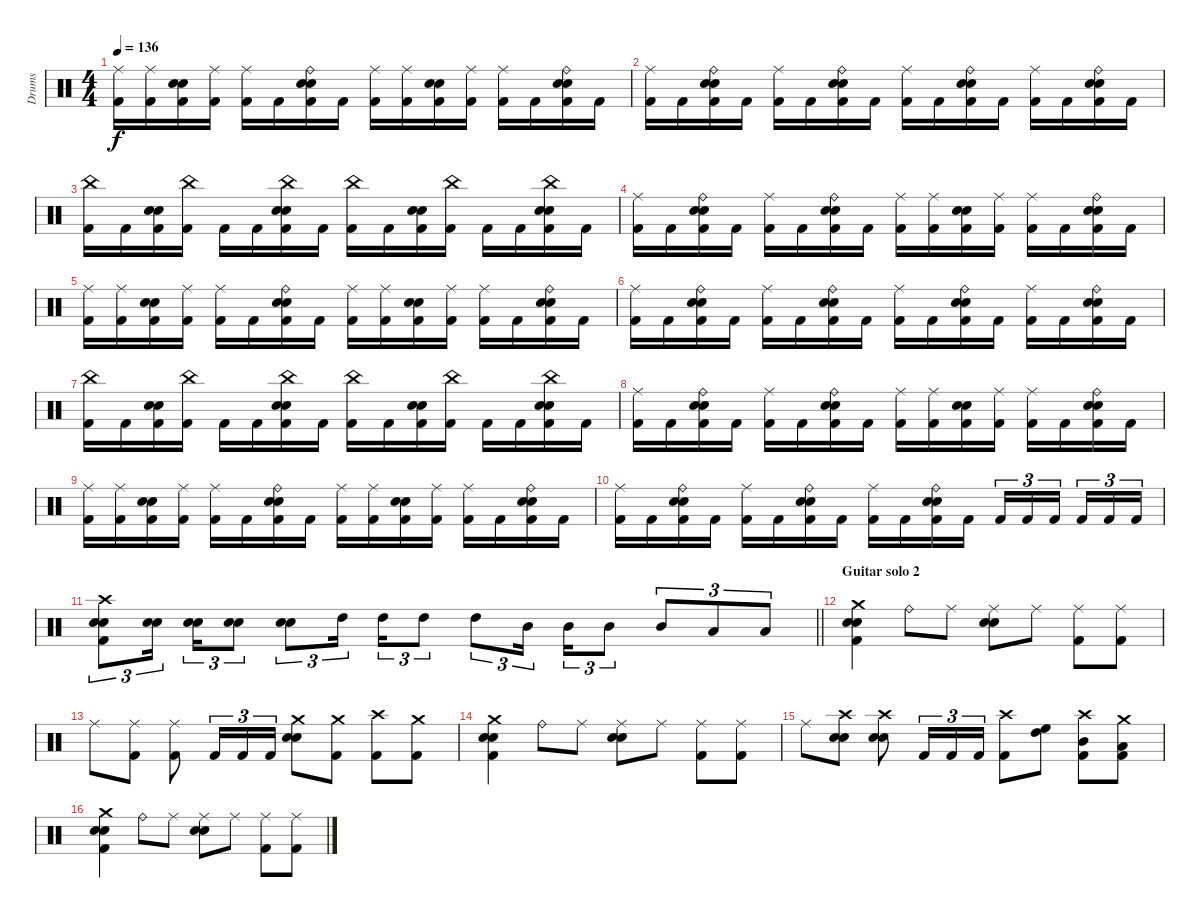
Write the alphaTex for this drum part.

\track ("Drums" "Drums") {instrument percussion}
\staff {score}
\articulation defaults
\ts (4 4)
\tempo 136
\clef neutral
\ks c
("Ride (middle)" "Kick (hit) 2").16{dy f} ("Ride (middle)" "Kick (hit) 2").16 ("Electric Snare (hit)" "Snare (hit) 2" "Kick (hit) 2").16 ("Ride (middle)" "Kick (hit) 2").16 ("Ride (middle)" "Kick (hit) 2").16 "Kick (hit) 2".16 ("Ride (bell)" "Electric Snare (hit)" "Snare (hit) 2" "Kick (hit) 2").16 "Kick (hit) 2".16 ("Ride (middle)" "Kick (hit) 2").16 ("Ride (middle)" "Kick (hit) 2").16 ("Electric Snare (hit)" "Snare (hit) 2" "Kick (hit) 2").16 ("Ride (middle)" "Kick (hit) 2").16 ("Ride (middle)" "Kick (hit) 2").16 "Kick (hit) 2".16 ("Ride (bell)" "Electric Snare (hit)" "Snare (hit) 2" "Kick (hit) 2").16 "Kick (hit) 2".16 |
("Ride (middle)" "Kick (hit) 2").16 "Kick (hit) 2".16 ("Ride (bell)" "Electric Snare (hit)" "Snare (hit) 2" "Kick (hit) 2").16 "Kick (hit) 2".16 ("Ride (middle)" "Kick (hit) 2").16 "Kick (hit) 2".16 ("Ride (bell)" "Electric Snare (hit)" "Snare (hit) 2" "Kick (hit) 2").16 "Kick (hit) 2".16 ("Ride (middle)" "Kick (hit) 2").16 "Kick (hit) 2".16 ("Ride (bell)" "Electric Snare (hit)" "Snare (hit) 2" "Kick (hit) 2").16 "Kick (hit) 2".16 ("Ride (middle)" "Kick (hit) 2").16 "Kick (hit) 2".16 ("Ride (bell)" "Electric Snare (hit)" "Snare (hit) 2" "Kick (hit) 2").16 "Kick (hit) 2".16 |
("China (hit)" "Kick (hit) 2").16 "Kick (hit) 2".16 ("Electric Snare (hit)" "Snare (hit) 2" "Kick (hit) 2").16 ("China (hit)" "Kick (hit) 2").16 "Kick (hit) 2".16 "Kick (hit) 2".16 ("China (hit)" "Electric Snare (hit)" "Snare (hit) 2" "Kick (hit) 2").16 "Kick (hit) 2".16 ("China (hit)" "Kick (hit) 2").16 "Kick (hit) 2".16 ("Electric Snare (hit)" "Snare (hit) 2" "Kick (hit) 2").16 ("China (hit)" "Kick (hit) 2").16 "Kick (hit) 2".16 "Kick (hit) 2".16 ("China (hit)" "Electric Snare (hit)" "Snare (hit) 2" "Kick (hit) 2").16 "Kick (hit) 2".16 |
("Ride (middle)" "Kick (hit) 2").16 "Kick (hit) 2".16 ("Ride (bell)" "Electric Snare (hit)" "Snare (hit) 2" "Kick (hit) 2").16 "Kick (hit) 2".16 ("Ride (middle)" "Kick (hit) 2").16 "Kick (hit) 2".16 ("Ride (bell)" "Electric Snare (hit)" "Snare (hit) 2" "Kick (hit) 2").16 "Kick (hit) 2".16 ("Ride (middle)" "Kick (hit) 2").16 ("Ride (middle)" "Kick (hit) 2").16 ("Electric Snare (hit)" "Snare (hit) 2" "Kick (hit) 2").16 ("Ride (middle)" "Kick (hit) 2").16 ("Ride (middle)" "Kick (hit) 2").16 "Kick (hit) 2".16 ("Ride (bell)" "Electric Snare (hit)" "Snare (hit) 2" "Kick (hit) 2").16 "Kick (hit) 2".16 |
("Ride (middle)" "Kick (hit) 2").16 ("Ride (middle)" "Kick (hit) 2").16 ("Electric Snare (hit)" "Snare (hit) 2" "Kick (hit) 2").16 ("Ride (middle)" "Kick (hit) 2").16 ("Ride (middle)" "Kick (hit) 2").16 "Kick (hit) 2".16 ("Ride (bell)" "Electric Snare (hit)" "Snare (hit) 2" "Kick (hit) 2").16 "Kick (hit) 2".16 ("Ride (middle)" "Kick (hit) 2").16 ("Ride (middle)" "Kick (hit) 2").16 ("Electric Snare (hit)" "Snare (hit) 2" "Kick (hit) 2").16 ("Ride (middle)" "Kick (hit) 2").16 ("Ride (middle)" "Kick (hit) 2").16 "Kick (hit) 2".16 ("Ride (bell)" "Electric Snare (hit)" "Snare (hit) 2" "Kick (hit) 2").16 "Kick (hit) 2".16 |
("Ride (middle)" "Kick (hit) 2").16 "Kick (hit) 2".16 ("Ride (bell)" "Electric Snare (hit)" "Snare (hit) 2" "Kick (hit) 2").16 "Kick (hit) 2".16 ("Ride (middle)" "Kick (hit) 2").16 "Kick (hit) 2".16 ("Ride (bell)" "Electric Snare (hit)" "Snare (hit) 2" "Kick (hit) 2").16 "Kick (hit) 2".16 ("Ride (middle)" "Kick (hit) 2").16 "Kick (hit) 2".16 ("Ride (bell)" "Electric Snare (hit)" "Snare (hit) 2" "Kick (hit) 2").16 "Kick (hit) 2".16 ("Ride (middle)" "Kick (hit) 2").16 "Kick (hit) 2".16 ("Ride (bell)" "Electric Snare (hit)" "Snare (hit) 2" "Kick (hit) 2").16 "Kick (hit) 2".16 |
("China (hit)" "Kick (hit) 2").16 "Kick (hit) 2".16 ("Electric Snare (hit)" "Snare (hit) 2" "Kick (hit) 2").16 ("China (hit)" "Kick (hit) 2").16 "Kick (hit) 2".16 "Kick (hit) 2".16 ("China (hit)" "Electric Snare (hit)" "Snare (hit) 2" "Kick (hit) 2").16 "Kick (hit) 2".16 ("China (hit)" "Kick (hit) 2").16 "Kick (hit) 2".16 ("Electric Snare (hit)" "Snare (hit) 2" "Kick (hit) 2").16 ("China (hit)" "Kick (hit) 2").16 "Kick (hit) 2".16 "Kick (hit) 2".16 ("China (hit)" "Electric Snare (hit)" "Snare (hit) 2" "Kick (hit) 2").16 "Kick (hit) 2".16 |
("Ride (middle)" "Kick (hit) 2").16 "Kick (hit) 2".16 ("Ride (bell)" "Electric Snare (hit)" "Snare (hit) 2" "Kick (hit) 2").16 "Kick (hit) 2".16 ("Ride (middle)" "Kick (hit) 2").16 "Kick (hit) 2".16 ("Ride (bell)" "Electric Snare (hit)" "Snare (hit) 2" "Kick (hit) 2").16 "Kick (hit) 2".16 ("Ride (middle)" "Kick (hit) 2").16 ("Ride (middle)" "Kick (hit) 2").16 ("Electric Snare (hit)" "Snare (hit) 2" "Kick (hit) 2").16 ("Ride (middle)" "Kick (hit) 2").16 ("Ride (middle)" "Kick (hit) 2").16 "Kick (hit) 2".16 ("Ride (bell)" "Electric Snare (hit)" "Snare (hit) 2" "Kick (hit) 2").16 "Kick (hit) 2".16 |
("Ride (middle)" "Kick (hit) 2").16 ("Ride (middle)" "Kick (hit) 2").16 ("Electric Snare (hit)" "Snare (hit) 2" "Kick (hit) 2").16 ("Ride (middle)" "Kick (hit) 2").16 ("Ride (middle)" "Kick (hit) 2").16 "Kick (hit) 2".16 ("Ride (bell)" "Electric Snare (hit)" "Snare (hit) 2" "Kick (hit) 2").16 "Kick (hit) 2".16 ("Ride (middle)" "Kick (hit) 2").16 ("Ride (middle)" "Kick (hit) 2").16 ("Electric Snare (hit)" "Snare (hit) 2" "Kick (hit) 2").16 ("Ride (middle)" "Kick (hit) 2").16 ("Ride (middle)" "Kick (hit) 2").16 "Kick (hit) 2".16 ("Ride (bell)" "Electric Snare (hit)" "Snare (hit) 2" "Kick (hit) 2").16 "Kick (hit) 2".16 |
("Ride (middle)" "Kick (hit) 2").16 "Kick (hit) 2".16 ("Ride (bell)" "Electric Snare (hit)" "Snare (hit) 2" "Kick (hit) 2").16 "Kick (hit) 2".16 ("Ride (middle)" "Kick (hit) 2").16 "Kick (hit) 2".16 ("Ride (bell)" "Electric Snare (hit)" "Snare (hit) 2" "Kick (hit) 2").16 "Kick (hit) 2".16 ("Ride (middle)" "Kick (hit) 2").16 "Kick (hit) 2".16 ("Ride (bell)" "Electric Snare (hit)" "Snare (hit) 2" "Kick (hit) 2").16 "Kick (hit) 2".16 "Kick (hit) 2".16{tu (3 2)} "Kick (hit) 2".16{tu (3 2)} "Kick (hit) 2".16{tu (3 2) beam splitsecondary} "Kick (hit) 2".16{tu (3 2)} "Kick (hit) 2".16{tu (3 2)} "Kick (hit) 2".16{tu (3 2)} |
\barLineRight lightlight
("Crash high (hit)" "Electric Snare (hit)" "Snare (hit) 2" "Kick (hit) 2").8{tu (3 2)} ("Electric Snare (hit)" "Snare (hit) 2").16{tu (3 2) beam splitsecondary} ("Electric Snare (hit)" "Snare (hit) 2").16{tu (3 2)} ("Electric Snare (hit)" "Snare (hit) 2").8{tu (3 2)} ("Electric Snare (hit)" "Snare (hit) 2").8{tu (3 2)} "High Tom (hit)".16{tu (3 2) beam splitsecondary} "High Tom (hit)".16{tu (3 2)} "High Tom (hit)".8{tu (3 2)} "High Tom (hit)".8{tu (3 2)} "Mid Tom (hit)".16{tu (3 2) beam splitsecondary} "Mid Tom (hit)".16{tu (3 2)} "Mid Tom (hit)".8{tu (3 2)} "Mid Tom (hit)".8{tu (3 2)} "Low Tom (hit)".8{tu (3 2)} "Low Tom (hit)".8{tu (3 2)} |
\section ("" "Guitar solo 2")
("Crash medium (hit)" "Electric Snare (hit)" "Snare (hit) 2" "Kick (hit) 2").4 "Ride (bell)".8 "Ride (middle)".8 ("Ride (middle)" "Electric Snare (hit)" "Snare (hit) 2").8 "Ride (middle)".8 ("Ride (middle)" "Kick (hit) 2").8 ("Ride (middle)" "Kick (hit) 2").8 |
"Ride (middle)".8 ("Ride (middle)" "Kick (hit) 2").8 ("Ride (middle)" "Kick (hit) 2").8 "Kick (hit) 2".16{tu (3 2)} "Kick (hit) 2".16{tu (3 2)} "Kick (hit) 2".16{tu (3 2)} ("Crash medium (hit)" "Electric Snare (hit)" "Snare (hit) 2").8 ("Crash medium (hit)" "Kick (hit) 2").8 ("Crash high (hit)" "Kick (hit) 2").8 ("Crash medium (hit)" "Kick (hit) 2").8 |
("Crash medium (hit)" "Electric Snare (hit)" "Snare (hit) 2" "Kick (hit) 2").4 "Ride (bell)".8 "Ride (middle)".8 ("Ride (middle)" "Electric Snare (hit)" "Snare (hit) 2").8 "Ride (middle)".8 ("Ride (middle)" "Kick (hit) 2").8 ("Ride (middle)" "Kick (hit) 2").8 |
"Ride (middle)".8 ("Crash high (hit)" "Electric Snare (hit)" "Snare (hit) 2").8 ("Crash high (hit)" "Electric Snare (hit)" "Snare (hit) 2").8 "Kick (hit) 2".16{tu (3 2)} "Kick (hit) 2".16{tu (3 2)} "Kick (hit) 2".16{tu (3 2)} ("Crash high (hit)" "Kick (hit) 2").8 ("High Floor Tom (hit)" "High Tom (hit)").8 ("Crash high (hit)" "Mid Tom (hit)" "Kick (hit) 2").8 ("Crash medium (hit)" "Low Tom (hit)" "Kick (hit) 2").8 |
("Crash medium (hit)" "Electric Snare (hit)" "Snare (hit) 2" "Kick (hit) 2").4 "Ride (bell)".8 "Ride (middle)".8 ("Ride (middle)" "Electric Snare (hit)" "Snare (hit) 2").8 "Ride (middle)".8 ("Ride (middle)" "Kick (hit) 2").8 ("Ride (middle)" "Kick (hit) 2").8
